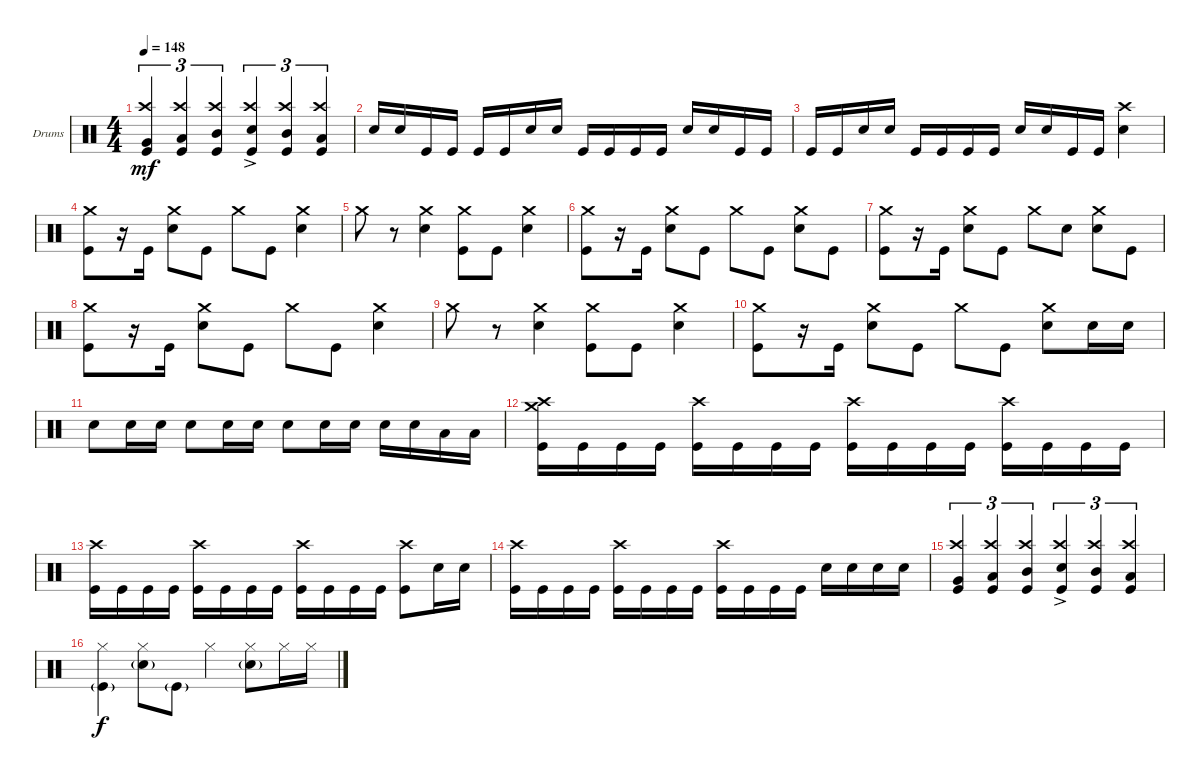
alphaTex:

\bracketExtendMode groupsimilarinstruments
\firstSystemTrackNameOrientation horizontal
\otherSystemsTrackNameOrientation horizontal
\track ("Drumkit" "Drums") {instrument percussion}
\staff {score}
\articulation defaults
\ts (4 4)
\tempo 148
\clef neutral
\scale
0.333333
\ks c
("Kick (hit)" "Crash high (hit)" "Very Low Tom (hit)").4{tu (3 2) dy mf} ("Kick (hit)" "Crash high (hit)" "Low Tom (hit)").4{tu (3 2)} ("Kick (hit)" "Crash high (hit)" "Mid Tom (hit)").4{tu (3 2)} ("Kick (hit)" "Crash high (hit)" "Snare (hit) 2"{ac}).4{tu (3 2)} ("Kick (hit)" "Crash high (hit)" "Mid Tom (hit)").4{tu (3 2)} ("Kick (hit)" "Crash high (hit)" "Low Tom (hit)").4{tu (3 2)} |
\scale
0.333333 "Snare (hit) 2".16 "Snare (hit) 2".16 "Kick (hit)".16 "Kick (hit)".16 "Kick (hit)".16 "Kick (hit)".16 "Snare (hit) 2".16 "Snare (hit) 2".16 "Kick (hit)".16 "Kick (hit)".16 "Kick (hit)".16 "Kick (hit)".16 "Snare (hit) 2".16 "Snare (hit) 2".16 "Kick (hit)".16 "Kick (hit)".16 |
\scale
0.333333 "Kick (hit)".16 "Kick (hit)".16 "Snare (hit) 2".16 "Snare (hit) 2".16 "Kick (hit)".16 "Kick (hit)".16 "Kick (hit)".16 "Kick (hit)".16 "Snare (hit) 2".16 "Snare (hit) 2".16 "Kick (hit)".16 "Kick (hit)".16 ("Crash high (hit)" "Snare (hit) 2").4 |
\scale
0.333333 ("Kick (hit)" "Crash medium (hit)").8 r.16 "Kick (hit)".16 ("Snare (hit) 2" "Crash medium (hit)").8 "Kick (hit)".8 "Crash medium (hit)".8 "Kick (hit)".8 ("Snare (hit) 2" "Crash medium (hit)").4 |
\scale
0.333333 "Crash medium (hit)".8 r.8 ("Snare (hit) 2" "Crash medium (hit)").4 ("Kick (hit)" "Crash medium (hit)").8 "Kick (hit)".8 ("Snare (hit) 2" "Crash medium (hit)").4 |
\scale
0.333333 ("Kick (hit)" "Crash medium (hit)").8 r.16 "Kick (hit)".16 ("Snare (hit) 2" "Crash medium (hit)").8 "Kick (hit)".8 "Crash medium (hit)".8 "Kick (hit)".8 ("Snare (hit) 2" "Crash medium (hit)").8 "Kick (hit)".8 |
\scale
0.333333 ("Kick (hit)" "Crash medium (hit)").8 r.16 "Kick (hit)".16 ("Snare (hit) 2" "Crash medium (hit)").8 "Kick (hit)".8 "Crash medium (hit)".8 "Snare (hit) 2".8 ("Snare (hit) 2" "Crash medium (hit)").8 "Kick (hit)".8 |
\scale
0.333333 ("Kick (hit)" "Crash medium (hit)").8 r.16 "Kick (hit)".16 ("Snare (hit) 2" "Crash medium (hit)").8 "Kick (hit)".8 "Crash medium (hit)".8 "Kick (hit)".8 ("Snare (hit) 2" "Crash medium (hit)").4 |
\scale
0.333333 "Crash medium (hit)".8 r.8 ("Snare (hit) 2" "Crash medium (hit)").4 ("Kick (hit)" "Crash medium (hit)").8 "Kick (hit)".8 ("Snare (hit) 2" "Crash medium (hit)").4 |
\scale
0.333333 ("Kick (hit)" "Crash medium (hit)").8 r.16 "Kick (hit)".16 ("Snare (hit) 2" "Crash medium (hit)").8 "Kick (hit)".8 "Crash medium (hit)".8 "Kick (hit)".8 ("Snare (hit) 2" "Crash medium (hit)").8 "Snare (hit) 2".16 "Snare (hit) 2".16 |
\scale
0.333333 "Snare (hit) 2".8 "Snare (hit) 2".16 "Snare (hit) 2".16 "Snare (hit) 2".8 "Snare (hit) 2".16 "Snare (hit) 2".16 "Snare (hit) 2".8 "Snare (hit) 2".16 "Snare (hit) 2".16 "Snare (hit) 2".16 "Snare (hit) 2".16 "Low Tom (hit)".16 "Low Tom (hit)".16 |
\scale
0.333333 ("Crash high (hit)" "Crash medium (hit)" "Kick (hit)").16 "Kick (hit)".16 "Kick (hit)".16 "Kick (hit)".16 ("Kick (hit)" "Crash high (hit)").16 "Kick (hit)".16 "Kick (hit)".16 "Kick (hit)".16 ("Kick (hit)" "Crash high (hit)").16 "Kick (hit)".16 "Kick (hit)".16 "Kick (hit)".16 ("Kick (hit)" "Crash high (hit)").16 "Kick (hit)".16 "Kick (hit)".16 "Kick (hit)".16 |
\scale
0.333333 ("Kick (hit)" "Crash high (hit)").16 "Kick (hit)".16 "Kick (hit)".16 "Kick (hit)".16 ("Kick (hit)" "Crash high (hit)").16 "Kick (hit)".16 "Kick (hit)".16 "Kick (hit)".16 ("Kick (hit)" "Crash high (hit)").16 "Kick (hit)".16 "Kick (hit)".16 "Kick (hit)".16 ("Kick (hit)" "Crash high (hit)").8 "Snare (hit) 2".16 "Snare (hit) 2".16 |
\scale
0.333333 ("Kick (hit)" "Crash high (hit)").16 "Kick (hit)".16 "Kick (hit)".16 "Kick (hit)".16 ("Kick (hit)" "Crash high (hit)").16 "Kick (hit)".16 "Kick (hit)".16 "Kick (hit)".16 ("Kick (hit)" "Crash high (hit)").16 "Kick (hit)".16 "Kick (hit)".16 "Kick (hit)".16 "Snare (hit) 2".16 "Snare (hit) 2".16 "Snare (hit) 2".16 "Snare (hit) 2".16 |
\scale
0.333333 ("Kick (hit)" "Crash high (hit)" "Very Low Tom (hit)").4{tu (3 2)} ("Kick (hit)" "Crash high (hit)" "Low Tom (hit)").4{tu (3 2)} ("Kick (hit)" "Crash high (hit)" "Mid Tom (hit)").4{tu (3 2)} ("Kick (hit)" "Crash high (hit)" "Snare (hit) 2"{ac}).4{tu (3 2)} ("Kick (hit)" "Crash high (hit)" "Mid Tom (hit)").4{tu (3 2)} ("Kick (hit)" "Crash high (hit)" "Low Tom (hit)").4{tu (3 2)} |
\scale
0.333333 ("Kick (hit)"{g} "Hi-Hat (closed)").4{dy f} ("Snare (hit) 2"{g} "Hi-Hat (closed)").8 "Kick (hit)"{g}.8 "Hi-Hat (closed)".4 ("Snare (hit) 2"{g} "Hi-Hat (closed)").8 "Hi-Hat (closed)".16 "Hi-Hat (closed)".16
